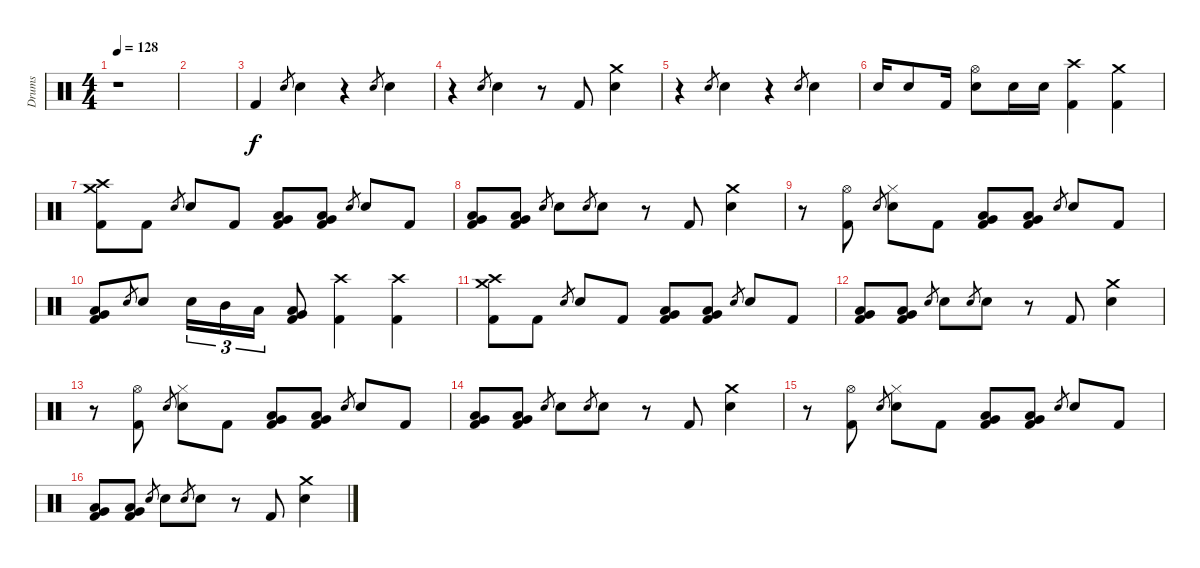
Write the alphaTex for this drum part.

\track ("Drums" "Drums") {instrument percussion}
\staff {score}
\articulation defaults
\ts (4 4)
\tempo 128
\clef neutral
\ks c
r.1{dy f} |
|
"Kick (hit) 2".4 "Electric Snare (hit)".8{gr} "Electric Snare (hit)".4 r.4 "Electric Snare (hit)".8{gr} "Electric Snare (hit)".4 |
r.4 "Electric Snare (hit)".8{gr} "Electric Snare (hit)".4 r.8 "Kick (hit) 2".8 ("Crash medium (hit)" "Electric Snare (hit)").4 |
r.4 "Electric Snare (hit)".8{gr} "Electric Snare (hit)".4 r.4 "Electric Snare (hit)".8{gr} "Electric Snare (hit)".4 |
"Electric Snare (hit)".16 "Electric Snare (hit)".8 "Kick (hit) 2".16 ("Hi-Hat (open)" "Electric Snare (hit)").8 "Electric Snare (hit)".16 "Electric Snare (hit)".16 ("Crash high (hit)" "Kick (hit) 2").4 ("Crash medium (hit)" "Kick (hit) 2").4 |
("Crash high (hit)" "Crash medium (hit)" "Kick (hit) 2").8 "Kick (hit) 2".8 "Electric Snare (hit)".8{gr} "Electric Snare (hit)".8 "Kick (hit) 2".8 ("Low Tom (hit)" "Very Low Tom (hit)" "Kick (hit) 2").8 ("Low Tom (hit)" "Very Low Tom (hit)" "Kick (hit) 2").8 "Electric Snare (hit)".8{gr} "Electric Snare (hit)".8 "Kick (hit) 2".8 |
("Low Tom (hit)" "Very Low Tom (hit)" "Kick (hit) 2").8 ("Low Tom (hit)" "Very Low Tom (hit)" "Kick (hit) 2").8 "Electric Snare (hit)".8{gr} "Electric Snare (hit)".8 "Electric Snare (hit)".8{gr} "Electric Snare (hit)".8 r.8 "Kick (hit) 2".8 ("Crash medium (hit)" "Electric Snare (hit)").4 |
r.8 ("Hi-Hat (open)" "Kick (hit) 2").8 "Electric Snare (hit)".8{gr} ("Hi-Hat (closed)" "Electric Snare (hit)").8 "Kick (hit) 2".8 ("Low Tom (hit)" "Very Low Tom (hit)" "Kick (hit) 2").8 ("Low Tom (hit)" "Very Low Tom (hit)" "Kick (hit) 2").8 "Electric Snare (hit)".8{gr} "Electric Snare (hit)".8 "Kick (hit) 2".8 |
("Low Tom (hit)" "Very Low Tom (hit)" "Kick (hit) 2").8 "Electric Snare (hit)".8{gr} "Electric Snare (hit)".8 "Electric Snare (hit)".16{tu (3 2)} "Mid Tom (hit)".16{tu (3 2)} "Low Tom (hit)".16{tu (3 2)} ("Low Tom (hit)" "Very Low Tom (hit)" "Kick (hit) 2").8 ("Crash high (hit)" "Kick (hit) 2").4 ("Crash high (hit)" "Kick (hit) 2").4 |
("Crash high (hit)" "Crash medium (hit)" "Kick (hit) 2").8 "Kick (hit) 2".8 "Electric Snare (hit)".8{gr} "Electric Snare (hit)".8 "Kick (hit) 2".8 ("Low Tom (hit)" "Very Low Tom (hit)" "Kick (hit) 2").8 ("Low Tom (hit)" "Very Low Tom (hit)" "Kick (hit) 2").8 "Electric Snare (hit)".8{gr} "Electric Snare (hit)".8 "Kick (hit) 2".8 |
("Low Tom (hit)" "Very Low Tom (hit)" "Kick (hit) 2").8 ("Low Tom (hit)" "Very Low Tom (hit)" "Kick (hit) 2").8 "Electric Snare (hit)".8{gr} "Electric Snare (hit)".8 "Electric Snare (hit)".8{gr} "Electric Snare (hit)".8 r.8 "Kick (hit) 2".8 ("Crash medium (hit)" "Electric Snare (hit)").4 |
r.8 ("Hi-Hat (open)" "Kick (hit) 2").8 "Electric Snare (hit)".8{gr} ("Hi-Hat (closed)" "Electric Snare (hit)").8 "Kick (hit) 2".8 ("Low Tom (hit)" "Very Low Tom (hit)" "Kick (hit) 2").8 ("Low Tom (hit)" "Very Low Tom (hit)" "Kick (hit) 2").8 "Electric Snare (hit)".8{gr} "Electric Snare (hit)".8 "Kick (hit) 2".8 |
("Low Tom (hit)" "Very Low Tom (hit)" "Kick (hit) 2").8 ("Low Tom (hit)" "Very Low Tom (hit)" "Kick (hit) 2").8 "Electric Snare (hit)".8{gr} "Electric Snare (hit)".8 "Electric Snare (hit)".8{gr} "Electric Snare (hit)".8 r.8 "Kick (hit) 2".8 ("Crash medium (hit)" "Electric Snare (hit)").4 |
r.8 ("Hi-Hat (open)" "Kick (hit) 2").8 "Electric Snare (hit)".8{gr} ("Hi-Hat (closed)" "Electric Snare (hit)").8 "Kick (hit) 2".8 ("Low Tom (hit)" "Very Low Tom (hit)" "Kick (hit) 2").8 ("Low Tom (hit)" "Very Low Tom (hit)" "Kick (hit) 2").8 "Electric Snare (hit)".8{gr} "Electric Snare (hit)".8 "Kick (hit) 2".8 |
("Low Tom (hit)" "Very Low Tom (hit)" "Kick (hit) 2").8 ("Low Tom (hit)" "Very Low Tom (hit)" "Kick (hit) 2").8 "Electric Snare (hit)".8{gr} "Electric Snare (hit)".8 "Electric Snare (hit)".8{gr} "Electric Snare (hit)".8 r.8 "Kick (hit) 2".8 ("Crash medium (hit)" "Electric Snare (hit)").4
